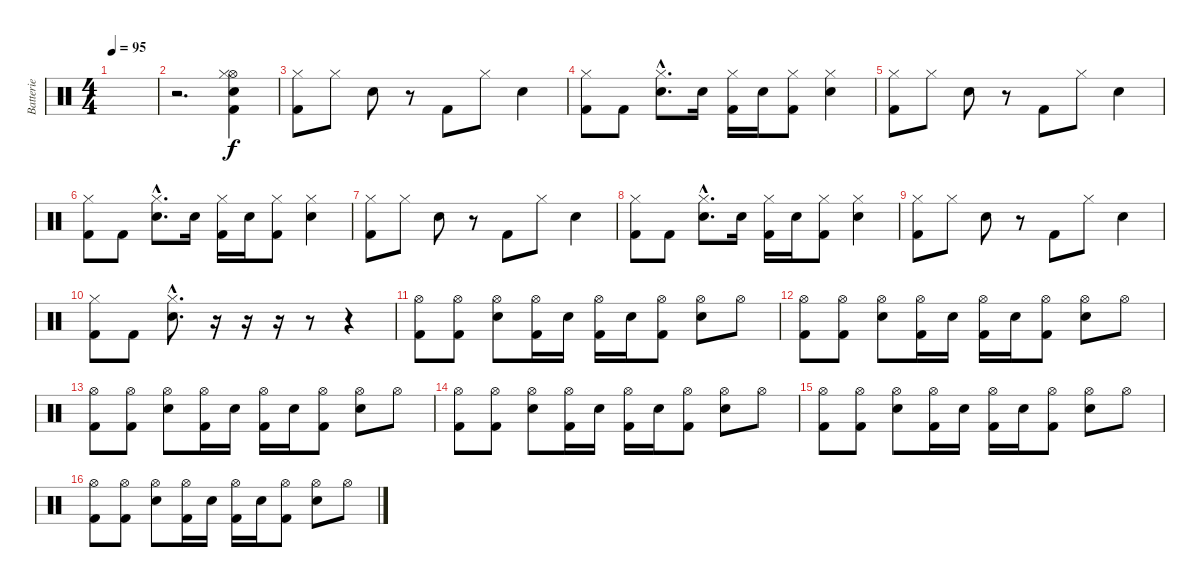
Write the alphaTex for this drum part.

\track ("Batterie" "Batterie") {instrument percussion}
\staff {score}
\articulation defaults
\ts (4 4)
\tempo 95
\clef neutral
\ks c
|
r.2{d} ("Kick (hit) 2" "Hi-Hat (open)" "Electric Snare (hit)" "Hi-Hat (closed)").4 |
("Kick (hit) 2" "Hi-Hat (closed)").8 "Hi-Hat (closed)".8 "Electric Snare (hit)".8 r.8 "Kick (hit) 2".8 "Hi-Hat (closed)".8 "Electric Snare (hit)".4 |
("Kick (hit) 2" "Hi-Hat (closed)").8 "Kick (hit) 2".8 ("Electric Snare (hit)"{hac} "Hi-Hat (closed)"{hac}).8{d} "Electric Snare (hit)".16 ("Kick (hit) 2" "Hi-Hat (closed)").16 "Electric Snare (hit)".16 ("Kick (hit) 2" "Hi-Hat (closed)").8 ("Electric Snare (hit)" "Hi-Hat (closed)").4 |
("Kick (hit) 2" "Hi-Hat (closed)").8 "Hi-Hat (closed)".8 "Electric Snare (hit)".8 r.8 "Kick (hit) 2".8 "Hi-Hat (closed)".8 "Electric Snare (hit)".4 |
("Kick (hit) 2" "Hi-Hat (closed)").8 "Kick (hit) 2".8 ("Electric Snare (hit)"{hac} "Hi-Hat (closed)"{hac}).8{d} "Electric Snare (hit)".16 ("Kick (hit) 2" "Hi-Hat (closed)").16 "Electric Snare (hit)".16 ("Kick (hit) 2" "Hi-Hat (closed)").8 ("Electric Snare (hit)" "Hi-Hat (closed)").4 |
("Kick (hit) 2" "Hi-Hat (closed)").8 "Hi-Hat (closed)".8 "Electric Snare (hit)".8 r.8 "Kick (hit) 2".8 "Hi-Hat (closed)".8 "Electric Snare (hit)".4 |
("Kick (hit) 2" "Hi-Hat (closed)").8 "Kick (hit) 2".8 ("Electric Snare (hit)"{hac} "Hi-Hat (closed)"{hac}).8{d} "Electric Snare (hit)".16 ("Kick (hit) 2" "Hi-Hat (closed)").16 "Electric Snare (hit)".16 ("Kick (hit) 2" "Hi-Hat (closed)").8 ("Electric Snare (hit)" "Hi-Hat (closed)").4 |
("Kick (hit) 2" "Hi-Hat (closed)").8 "Hi-Hat (closed)".8 "Electric Snare (hit)".8 r.8 "Kick (hit) 2".8 "Hi-Hat (closed)".8 "Electric Snare (hit)".4 |
("Kick (hit) 2" "Hi-Hat (closed)").8 "Kick (hit) 2".8 ("Electric Snare (hit)"{hac} "Hi-Hat (closed)"{hac}).8{d} r.16 r.16 r.16 r.8 r.4 |
("Kick (hit) 2" "Hi-Hat (open)").8 ("Kick (hit) 2" "Hi-Hat (open)").8 ("Electric Snare (hit)" "Hi-Hat (open)").8 ("Kick (hit) 2" "Hi-Hat (open)").16 "Electric Snare (hit)".16 ("Kick (hit) 2" "Hi-Hat (open)").16 "Electric Snare (hit)".16 ("Kick (hit) 2" "Hi-Hat (open)").8 ("Electric Snare (hit)" "Hi-Hat (open)").8 "Hi-Hat (open)".8 |
("Kick (hit) 2" "Hi-Hat (open)").8 ("Kick (hit) 2" "Hi-Hat (open)").8 ("Electric Snare (hit)" "Hi-Hat (open)").8 ("Kick (hit) 2" "Hi-Hat (open)").16 "Electric Snare (hit)".16 ("Kick (hit) 2" "Hi-Hat (open)").16 "Electric Snare (hit)".16 ("Kick (hit) 2" "Hi-Hat (open)").8 ("Electric Snare (hit)" "Hi-Hat (open)").8 "Hi-Hat (open)".8 |
("Kick (hit) 2" "Hi-Hat (open)").8 ("Kick (hit) 2" "Hi-Hat (open)").8 ("Electric Snare (hit)" "Hi-Hat (open)").8 ("Kick (hit) 2" "Hi-Hat (open)").16 "Electric Snare (hit)".16 ("Kick (hit) 2" "Hi-Hat (open)").16 "Electric Snare (hit)".16 ("Kick (hit) 2" "Hi-Hat (open)").8 ("Electric Snare (hit)" "Hi-Hat (open)").8 "Hi-Hat (open)".8 |
("Kick (hit) 2" "Hi-Hat (open)").8 ("Kick (hit) 2" "Hi-Hat (open)").8 ("Electric Snare (hit)" "Hi-Hat (open)").8 ("Kick (hit) 2" "Hi-Hat (open)").16 "Electric Snare (hit)".16 ("Kick (hit) 2" "Hi-Hat (open)").16 "Electric Snare (hit)".16 ("Kick (hit) 2" "Hi-Hat (open)").8 ("Electric Snare (hit)" "Hi-Hat (open)").8 "Hi-Hat (open)".8 |
("Kick (hit) 2" "Hi-Hat (open)").8 ("Kick (hit) 2" "Hi-Hat (open)").8 ("Electric Snare (hit)" "Hi-Hat (open)").8 ("Kick (hit) 2" "Hi-Hat (open)").16 "Electric Snare (hit)".16 ("Kick (hit) 2" "Hi-Hat (open)").16 "Electric Snare (hit)".16 ("Kick (hit) 2" "Hi-Hat (open)").8 ("Electric Snare (hit)" "Hi-Hat (open)").8 "Hi-Hat (open)".8 |
("Kick (hit) 2" "Hi-Hat (open)").8 ("Kick (hit) 2" "Hi-Hat (open)").8 ("Electric Snare (hit)" "Hi-Hat (open)").8 ("Kick (hit) 2" "Hi-Hat (open)").16 "Electric Snare (hit)".16 ("Kick (hit) 2" "Hi-Hat (open)").16 "Electric Snare (hit)".16 ("Kick (hit) 2" "Hi-Hat (open)").8 ("Electric Snare (hit)" "Hi-Hat (open)").8 "Hi-Hat (open)".8
